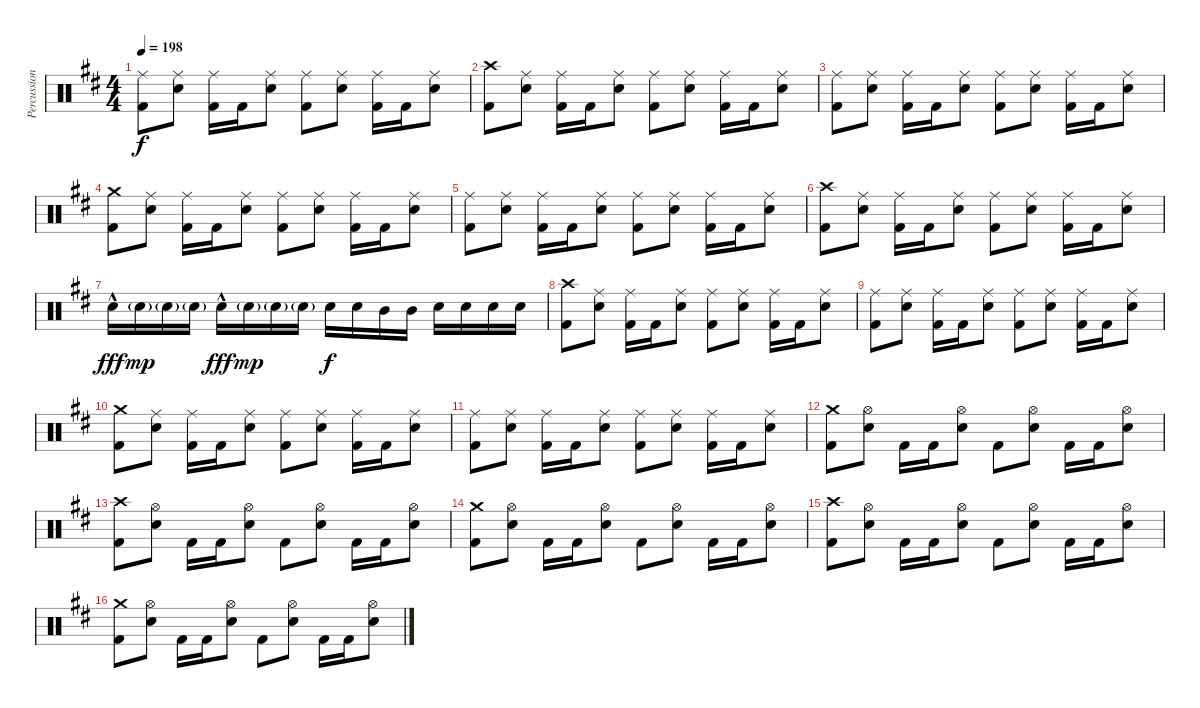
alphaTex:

\track ("Percussion" "Percussion") {instrument percussion}
\staff {score}
\articulation defaults
\ts (4 4)
\tempo 198
\clef neutral
\ks bminor
("Ride (middle)" "Kick (hit) 2").8{dy f} ("Ride (middle)" "Snare (hit) 2").8 ("Ride (middle)" "Kick (hit) 2").16 "Kick (hit) 2".16 ("Ride (middle)" "Snare (hit) 2").8 ("Ride (middle)" "Kick (hit) 2").8 ("Ride (middle)" "Snare (hit) 2").8 ("Ride (middle)" "Kick (hit) 2").16 "Kick (hit) 2".16 ("Ride (middle)" "Snare (hit) 2").8 |
("Crash high (hit)" "Kick (hit) 2").8 ("Ride (middle)" "Snare (hit) 2").8 ("Ride (middle)" "Kick (hit) 2").16 "Kick (hit) 2".16 ("Ride (middle)" "Snare (hit) 2").8 ("Ride (middle)" "Kick (hit) 2").8 ("Ride (middle)" "Snare (hit) 2").8 ("Ride (middle)" "Kick (hit) 2").16 "Kick (hit) 2".16 ("Ride (middle)" "Snare (hit) 2").8 |
("Ride (middle)" "Kick (hit) 2").8 ("Ride (middle)" "Snare (hit) 2").8 ("Ride (middle)" "Kick (hit) 2").16 "Kick (hit) 2".16 ("Ride (middle)" "Snare (hit) 2").8 ("Ride (middle)" "Kick (hit) 2").8 ("Ride (middle)" "Snare (hit) 2").8 ("Ride (middle)" "Kick (hit) 2").16 "Kick (hit) 2".16 ("Ride (middle)" "Snare (hit) 2").8 |
("Crash medium (hit)" "Kick (hit) 2").8 ("Ride (middle)" "Snare (hit) 2").8 ("Ride (middle)" "Kick (hit) 2").16 "Kick (hit) 2".16 ("Ride (middle)" "Snare (hit) 2").8 ("Ride (middle)" "Kick (hit) 2").8 ("Ride (middle)" "Snare (hit) 2").8 ("Ride (middle)" "Kick (hit) 2").16 "Kick (hit) 2".16 ("Ride (middle)" "Snare (hit) 2").8 |
("Ride (middle)" "Kick (hit) 2").8 ("Ride (middle)" "Snare (hit) 2").8 ("Ride (middle)" "Kick (hit) 2").16 "Kick (hit) 2".16 ("Ride (middle)" "Snare (hit) 2").8 ("Ride (middle)" "Kick (hit) 2").8 ("Ride (middle)" "Snare (hit) 2").8 ("Ride (middle)" "Kick (hit) 2").16 "Kick (hit) 2".16 ("Ride (middle)" "Snare (hit) 2").8 |
("Crash high (hit)" "Kick (hit) 2").8 ("Ride (middle)" "Snare (hit) 2").8 ("Ride (middle)" "Kick (hit) 2").16 "Kick (hit) 2".16 ("Ride (middle)" "Snare (hit) 2").8 ("Ride (middle)" "Kick (hit) 2").8 ("Ride (middle)" "Snare (hit) 2").8 ("Ride (middle)" "Kick (hit) 2").16 "Kick (hit) 2".16 ("Ride (middle)" "Snare (hit) 2").8 |
"Snare (hit) 2"{hac}.16{dy fff} "Snare (hit) 2"{g}.16{dy mp} "Snare (hit) 2"{g}.16 "Snare (hit) 2"{g}.16 "Snare (hit) 2"{hac}.16{dy fff} "Snare (hit) 2"{g}.16{dy mp} "Snare (hit) 2"{g}.16 "Snare (hit) 2"{g}.16 "Snare (hit) 2".16{dy f} "Snare (hit) 2".16 "Mid Tom (hit)".16 "Mid Tom (hit)".16 "Snare (hit) 2".16 "Snare (hit) 2".16 "Snare (hit) 2".16 "Snare (hit) 2".16 |
("Crash high (hit)" "Kick (hit) 2").8 ("Ride (middle)" "Snare (hit) 2").8 ("Ride (middle)" "Kick (hit) 2").16 "Kick (hit) 2".16 ("Ride (middle)" "Snare (hit) 2").8 ("Ride (middle)" "Kick (hit) 2").8 ("Ride (middle)" "Snare (hit) 2").8 ("Ride (middle)" "Kick (hit) 2").16 "Kick (hit) 2".16 ("Ride (middle)" "Snare (hit) 2").8 |
("Ride (middle)" "Kick (hit) 2").8 ("Ride (middle)" "Snare (hit) 2").8 ("Ride (middle)" "Kick (hit) 2").16 "Kick (hit) 2".16 ("Ride (middle)" "Snare (hit) 2").8 ("Ride (middle)" "Kick (hit) 2").8 ("Ride (middle)" "Snare (hit) 2").8 ("Ride (middle)" "Kick (hit) 2").16 "Kick (hit) 2".16 ("Ride (middle)" "Snare (hit) 2").8 |
("Crash medium (hit)" "Kick (hit) 2").8 ("Ride (middle)" "Snare (hit) 2").8 ("Ride (middle)" "Kick (hit) 2").16 "Kick (hit) 2".16 ("Ride (middle)" "Snare (hit) 2").8 ("Ride (middle)" "Kick (hit) 2").8 ("Ride (middle)" "Snare (hit) 2").8 ("Ride (middle)" "Kick (hit) 2").16 "Kick (hit) 2".16 ("Ride (middle)" "Snare (hit) 2").8 |
("Ride (middle)" "Kick (hit) 2").8 ("Ride (middle)" "Snare (hit) 2").8 ("Ride (middle)" "Kick (hit) 2").16 "Kick (hit) 2".16 ("Ride (middle)" "Snare (hit) 2").8 ("Ride (middle)" "Kick (hit) 2").8 ("Ride (middle)" "Snare (hit) 2").8 ("Ride (middle)" "Kick (hit) 2").16 "Kick (hit) 2".16 ("Ride (middle)" "Snare (hit) 2").8 |
("Crash medium (hit)" "Kick (hit) 2").8 ("Hi-Hat (open)" "Snare (hit) 2").8 "Kick (hit) 2".16 "Kick (hit) 2".16 ("Hi-Hat (open)" "Snare (hit) 2").8 "Kick (hit) 2".8 ("Hi-Hat (open)" "Snare (hit) 2").8 "Kick (hit) 2".16 "Kick (hit) 2".16 ("Hi-Hat (open)" "Snare (hit) 2").8 |
("Crash high (hit)" "Kick (hit) 2").8 ("Hi-Hat (open)" "Snare (hit) 2").8 "Kick (hit) 2".16 "Kick (hit) 2".16 ("Hi-Hat (open)" "Snare (hit) 2").8 "Kick (hit) 2".8 ("Hi-Hat (open)" "Snare (hit) 2").8 "Kick (hit) 2".16 "Kick (hit) 2".16 ("Hi-Hat (open)" "Snare (hit) 2").8 |
("Crash medium (hit)" "Kick (hit) 2").8 ("Hi-Hat (open)" "Snare (hit) 2").8 "Kick (hit) 2".16 "Kick (hit) 2".16 ("Hi-Hat (open)" "Snare (hit) 2").8 "Kick (hit) 2".8 ("Hi-Hat (open)" "Snare (hit) 2").8 "Kick (hit) 2".16 "Kick (hit) 2".16 ("Hi-Hat (open)" "Snare (hit) 2").8 |
("Crash high (hit)" "Kick (hit) 2").8 ("Hi-Hat (open)" "Snare (hit) 2").8 "Kick (hit) 2".16 "Kick (hit) 2".16 ("Hi-Hat (open)" "Snare (hit) 2").8 "Kick (hit) 2".8 ("Hi-Hat (open)" "Snare (hit) 2").8 "Kick (hit) 2".16 "Kick (hit) 2".16 ("Hi-Hat (open)" "Snare (hit) 2").8 |
("Crash medium (hit)" "Kick (hit) 2").8 ("Hi-Hat (open)" "Snare (hit) 2").8 "Kick (hit) 2".16 "Kick (hit) 2".16 ("Hi-Hat (open)" "Snare (hit) 2").8 "Kick (hit) 2".8 ("Hi-Hat (open)" "Snare (hit) 2").8 "Kick (hit) 2".16 "Kick (hit) 2".16 ("Hi-Hat (open)" "Snare (hit) 2").8
